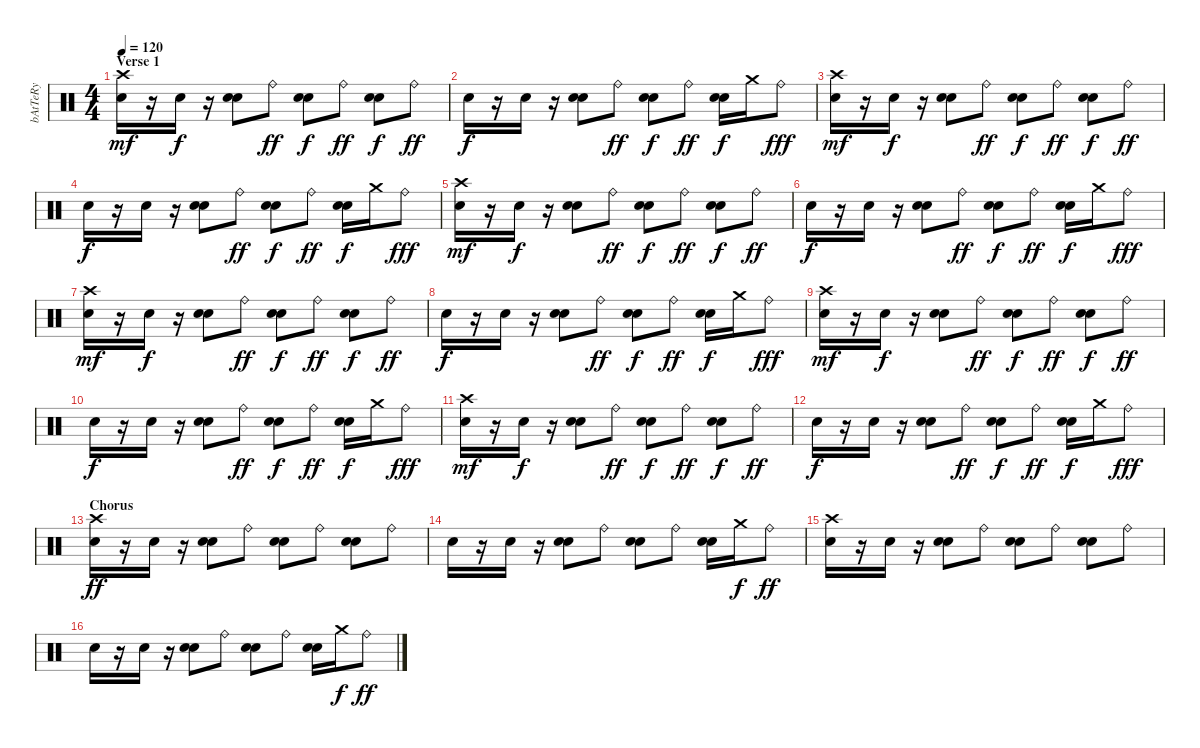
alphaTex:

\track ("bAtTeRy" "bAtTeRy") {instrument percussion}
\staff {score}
\articulation defaults
\ts (4 4)
\section ("" "Verse 1")
\tempo 120
\clef neutral
\ks c
("Crash high (hit)" "Electric Snare (hit)").16{dy mf} r.16 "Electric Snare (hit)".16{dy f} r.16 ("Electric Snare (hit)" "Electric Snare (hit)").8{bd 480} "Ride (bell)".8{dy ff} ("Electric Snare (hit)" "Electric Snare (hit)").8{bd 480 dy f} "Ride (bell)".8{dy ff} ("Electric Snare (hit)" "Electric Snare (hit)").8{bd 480 dy f} "Ride (bell)".8{dy ff} |
"Electric Snare (hit)".16{dy f} r.16 "Electric Snare (hit)".16 r.16 ("Electric Snare (hit)" "Electric Snare (hit)").8{bd 480} "Ride (bell)".8{dy ff} ("Electric Snare (hit)" "Electric Snare (hit)").8{bd 480 dy f} "Ride (bell)".8{dy ff} ("Electric Snare (hit)" "Electric Snare (hit)").16{bd 480 dy f} "Crash medium (hit)".16 "Ride (bell)".8{dy fff} |
("Crash high (hit)" "Electric Snare (hit)").16{dy mf} r.16 "Electric Snare (hit)".16{dy f} r.16 ("Electric Snare (hit)" "Electric Snare (hit)").8{bd 480} "Ride (bell)".8{dy ff} ("Electric Snare (hit)" "Electric Snare (hit)").8{bd 480 dy f} "Ride (bell)".8{dy ff} ("Electric Snare (hit)" "Electric Snare (hit)").8{bd 480 dy f} "Ride (bell)".8{dy ff} |
"Electric Snare (hit)".16{dy f} r.16 "Electric Snare (hit)".16 r.16 ("Electric Snare (hit)" "Electric Snare (hit)").8{bd 480} "Ride (bell)".8{dy ff} ("Electric Snare (hit)" "Electric Snare (hit)").8{bd 480 dy f} "Ride (bell)".8{dy ff} ("Electric Snare (hit)" "Electric Snare (hit)").16{bd 480 dy f} "Crash medium (hit)".16 "Ride (bell)".8{dy fff} |
("Crash high (hit)" "Electric Snare (hit)").16{dy mf} r.16 "Electric Snare (hit)".16{dy f} r.16 ("Electric Snare (hit)" "Electric Snare (hit)").8{bd 480} "Ride (bell)".8{dy ff} ("Electric Snare (hit)" "Electric Snare (hit)").8{bd 480 dy f} "Ride (bell)".8{dy ff} ("Electric Snare (hit)" "Electric Snare (hit)").8{bd 480 dy f} "Ride (bell)".8{dy ff} |
"Electric Snare (hit)".16{dy f} r.16 "Electric Snare (hit)".16 r.16 ("Electric Snare (hit)" "Electric Snare (hit)").8{bd 480} "Ride (bell)".8{dy ff} ("Electric Snare (hit)" "Electric Snare (hit)").8{bd 480 dy f} "Ride (bell)".8{dy ff} ("Electric Snare (hit)" "Electric Snare (hit)").16{bd 480 dy f} "Crash medium (hit)".16 "Ride (bell)".8{dy fff} |
("Crash high (hit)" "Electric Snare (hit)").16{dy mf} r.16 "Electric Snare (hit)".16{dy f} r.16 ("Electric Snare (hit)" "Electric Snare (hit)").8{bd 480} "Ride (bell)".8{dy ff} ("Electric Snare (hit)" "Electric Snare (hit)").8{bd 480 dy f} "Ride (bell)".8{dy ff} ("Electric Snare (hit)" "Electric Snare (hit)").8{bd 480 dy f} "Ride (bell)".8{dy ff} |
"Electric Snare (hit)".16{dy f} r.16 "Electric Snare (hit)".16 r.16 ("Electric Snare (hit)" "Electric Snare (hit)").8{bd 480} "Ride (bell)".8{dy ff} ("Electric Snare (hit)" "Electric Snare (hit)").8{bd 480 dy f} "Ride (bell)".8{dy ff} ("Electric Snare (hit)" "Electric Snare (hit)").16{bd 480 dy f} "Crash medium (hit)".16 "Ride (bell)".8{dy fff} |
("Crash high (hit)" "Electric Snare (hit)").16{dy mf} r.16 "Electric Snare (hit)".16{dy f} r.16 ("Electric Snare (hit)" "Electric Snare (hit)").8{bd 480} "Ride (bell)".8{dy ff} ("Electric Snare (hit)" "Electric Snare (hit)").8{bd 480 dy f} "Ride (bell)".8{dy ff} ("Electric Snare (hit)" "Electric Snare (hit)").8{bd 480 dy f} "Ride (bell)".8{dy ff} |
"Electric Snare (hit)".16{dy f} r.16 "Electric Snare (hit)".16 r.16 ("Electric Snare (hit)" "Electric Snare (hit)").8{bd 480} "Ride (bell)".8{dy ff} ("Electric Snare (hit)" "Electric Snare (hit)").8{bd 480 dy f} "Ride (bell)".8{dy ff} ("Electric Snare (hit)" "Electric Snare (hit)").16{bd 480 dy f} "Crash medium (hit)".16 "Ride (bell)".8{dy fff} |
("Crash high (hit)" "Electric Snare (hit)").16{dy mf} r.16 "Electric Snare (hit)".16{dy f} r.16 ("Electric Snare (hit)" "Electric Snare (hit)").8{bd 480} "Ride (bell)".8{dy ff} ("Electric Snare (hit)" "Electric Snare (hit)").8{bd 480 dy f} "Ride (bell)".8{dy ff} ("Electric Snare (hit)" "Electric Snare (hit)").8{bd 480 dy f} "Ride (bell)".8{dy ff} |
"Electric Snare (hit)".16{dy f} r.16 "Electric Snare (hit)".16 r.16 ("Electric Snare (hit)" "Electric Snare (hit)").8{bd 480} "Ride (bell)".8{dy ff} ("Electric Snare (hit)" "Electric Snare (hit)").8{bd 480 dy f} "Ride (bell)".8{dy ff} ("Electric Snare (hit)" "Electric Snare (hit)").16{bd 480 dy f} "Crash medium (hit)".16 "Ride (bell)".8{dy fff} |
\section ("" "Chorus")
("Crash high (hit)" "Electric Snare (hit)").16{dy ff} r.16 "Electric Snare (hit)".16 r.16 ("Electric Snare (hit)" "Electric Snare (hit)").8{bd 480} "Ride (bell)".8 ("Electric Snare (hit)" "Electric Snare (hit)").8{bd 480} "Ride (bell)".8 ("Electric Snare (hit)" "Electric Snare (hit)").8{bd 480} "Ride (bell)".8 |
"Electric Snare (hit)".16 r.16 "Electric Snare (hit)".16 r.16 ("Electric Snare (hit)" "Electric Snare (hit)").8{bd 480} "Ride (bell)".8 ("Electric Snare (hit)" "Electric Snare (hit)").8{bd 480} "Ride (bell)".8 ("Electric Snare (hit)" "Electric Snare (hit)").16{bd 480} "Crash medium (hit)".16{dy f} "Ride (bell)".8{dy ff} |
("Crash high (hit)" "Electric Snare (hit)").16 r.16 "Electric Snare (hit)".16 r.16 ("Electric Snare (hit)" "Electric Snare (hit)").8{bd 480} "Ride (bell)".8 ("Electric Snare (hit)" "Electric Snare (hit)").8{bd 480} "Ride (bell)".8 ("Electric Snare (hit)" "Electric Snare (hit)").8{bd 480} "Ride (bell)".8 |
"Electric Snare (hit)".16 r.16 "Electric Snare (hit)".16 r.16 ("Electric Snare (hit)" "Electric Snare (hit)").8{bd 480} "Ride (bell)".8 ("Electric Snare (hit)" "Electric Snare (hit)").8{bd 480} "Ride (bell)".8 ("Electric Snare (hit)" "Electric Snare (hit)").16{bd 480} "Crash medium (hit)".16{dy f} "Ride (bell)".8{dy ff}
